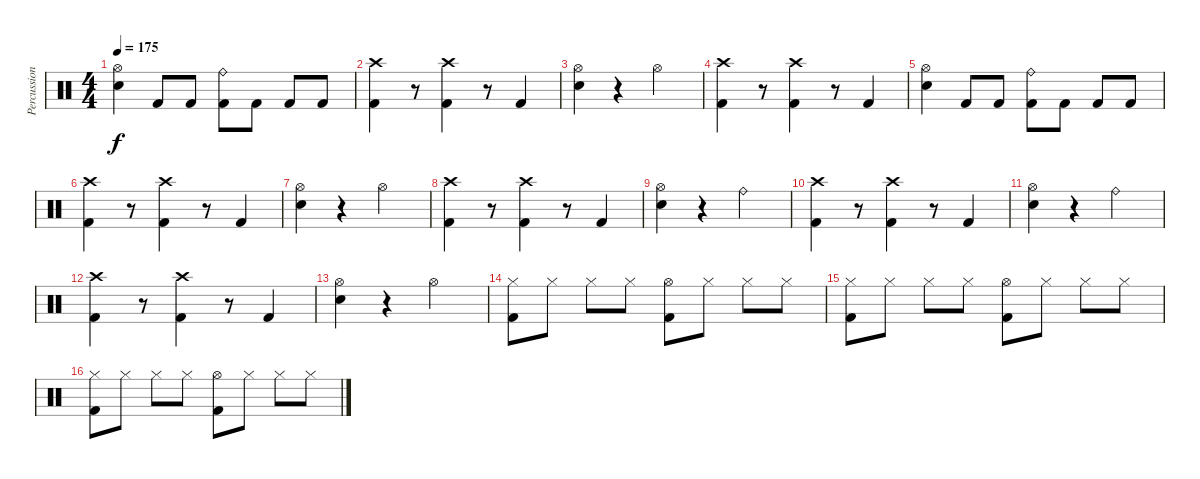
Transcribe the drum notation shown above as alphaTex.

\track ("Percussion" "Percussion") {instrument percussion}
\staff {score}
\articulation defaults
\ts (4 4)
\tempo 175
\clef neutral
\ks c
("Electric Snare (hit)" "Hi-Hat (open)").4{dy f} "Kick (hit) 2".8 "Kick (hit) 2".8 ("Ride (bell)" "Kick (hit) 2").8 "Kick (hit) 2".8 "Kick (hit) 2".8 "Kick (hit) 2".8 |
("Kick (hit) 2" "Crash high (hit)").4 r.8 ("Kick (hit) 2" "Crash high (hit)").4 r.8 "Kick (hit) 2".4 |
("Electric Snare (hit)" "Hi-Hat (open)").4 r.4 "Hi-Hat (open)".2 |
("Kick (hit) 2" "Crash high (hit)").4 r.8 ("Kick (hit) 2" "Crash high (hit)").4 r.8 "Kick (hit) 2".4 |
("Electric Snare (hit)" "Hi-Hat (open)").4 "Kick (hit) 2".8 "Kick (hit) 2".8 ("Ride (bell)" "Kick (hit) 2").8 "Kick (hit) 2".8 "Kick (hit) 2".8 "Kick (hit) 2".8 |
("Kick (hit) 2" "Crash high (hit)").4 r.8 ("Kick (hit) 2" "Crash high (hit)").4 r.8 "Kick (hit) 2".4 |
("Electric Snare (hit)" "Hi-Hat (open)").4 r.4 "Hi-Hat (open)".2 |
("Kick (hit) 2" "Crash high (hit)").4 r.8 ("Kick (hit) 2" "Crash high (hit)").4 r.8 "Kick (hit) 2".4 |
("Electric Snare (hit)" "Hi-Hat (open)").4 r.4 "Ride (bell)".2 |
("Kick (hit) 2" "Crash high (hit)").4 r.8 ("Kick (hit) 2" "Crash high (hit)").4 r.8 "Kick (hit) 2".4 |
("Electric Snare (hit)" "Hi-Hat (open)").4 r.4 "Ride (bell)".2 |
("Kick (hit) 2" "Crash high (hit)").4 r.8 ("Kick (hit) 2" "Crash high (hit)").4 r.8 "Kick (hit) 2".4 |
("Electric Snare (hit)" "Hi-Hat (open)").4 r.4 "Hi-Hat (open)".2 |
("Hi-Hat (closed)" "Kick (hit) 2").8 "Hi-Hat (closed)".8 "Hi-Hat (closed)".8 "Hi-Hat (closed)".8 ("Hi-Hat (open)" "Kick (hit) 2").8 "Hi-Hat (closed)".8 "Hi-Hat (closed)".8 "Hi-Hat (closed)".8 |
("Hi-Hat (closed)" "Kick (hit) 2").8 "Hi-Hat (closed)".8 "Hi-Hat (closed)".8 "Hi-Hat (closed)".8 ("Hi-Hat (open)" "Kick (hit) 2").8 "Hi-Hat (closed)".8 "Hi-Hat (closed)".8 "Hi-Hat (closed)".8 |
("Hi-Hat (closed)" "Kick (hit) 2").8 "Hi-Hat (closed)".8 "Hi-Hat (closed)".8 "Hi-Hat (closed)".8 ("Hi-Hat (open)" "Kick (hit) 2").8 "Hi-Hat (closed)".8 "Hi-Hat (closed)".8 "Hi-Hat (closed)".8
